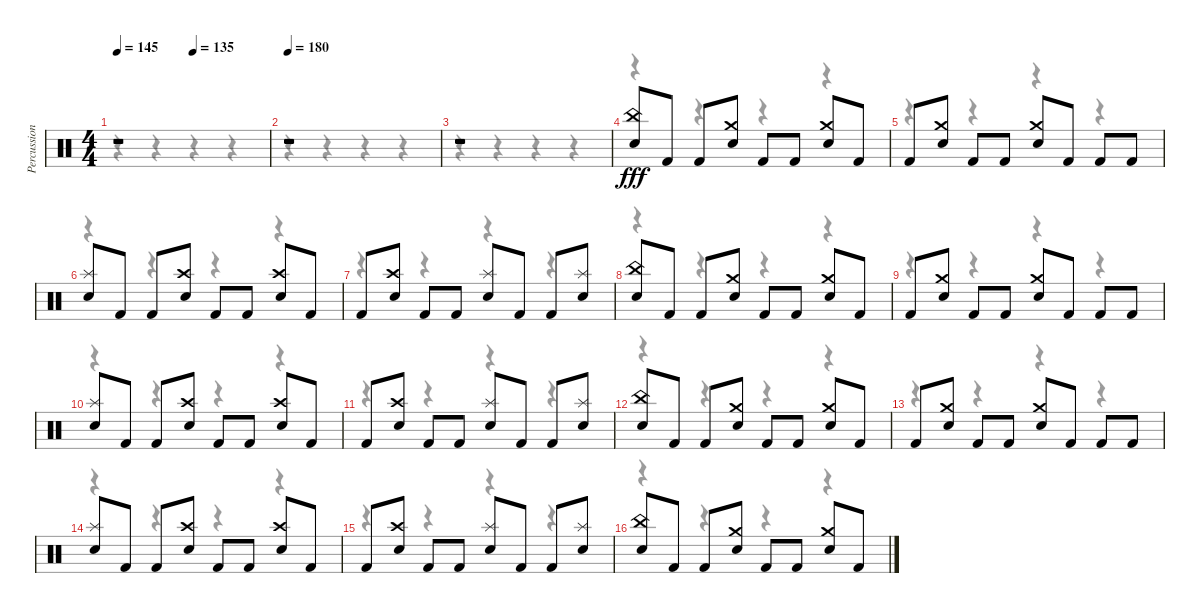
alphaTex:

\track ("Percussion" "Percussion") {instrument percussion}
\staff {score}
\articulation defaults
\voice
\ts (4 4)
\tempo 145
\tempo (135 0.5)
\clef neutral
\ks c
r.1{dy fff} |
\tempo 180
r.1 |
r.1 |
("Snare (hit) 2" "China (hit)").8 "Kick (hit) 2".8 "Kick (hit) 2".8 ("Snare (hit) 2" "Crash medium (hit)").8 "Kick (hit) 2".8 "Kick (hit) 2".8 ("Snare (hit) 2" "Crash medium (hit)").8 "Kick (hit) 2".8 |
"Kick (hit) 2".8 ("Snare (hit) 2" "Crash medium (hit)").8 "Kick (hit) 2".8 "Kick (hit) 2".8 ("Snare (hit) 2" "Crash medium (hit)").8 "Kick (hit) 2".8 "Kick (hit) 2".8 "Kick (hit) 2".8 |
("Snare (hit) 2" "Splash (hit)").8 "Kick (hit) 2".8 "Kick (hit) 2".8 ("Snare (hit) 2" "Crash high (hit)").8 "Kick (hit) 2".8 "Kick (hit) 2".8 ("Snare (hit) 2" "Crash high (hit)").8 "Kick (hit) 2".8 |
"Kick (hit) 2".8 ("Snare (hit) 2" "Crash high (hit)").8 "Kick (hit) 2".8 "Kick (hit) 2".8 ("Snare (hit) 2" "Splash (hit)").8 "Kick (hit) 2".8 "Kick (hit) 2".8 ("Snare (hit) 2" "Splash (hit)").8 |
("Snare (hit) 2" "China (hit)").8 "Kick (hit) 2".8 "Kick (hit) 2".8 ("Snare (hit) 2" "Crash medium (hit)").8 "Kick (hit) 2".8 "Kick (hit) 2".8 ("Snare (hit) 2" "Crash medium (hit)").8 "Kick (hit) 2".8 |
"Kick (hit) 2".8 ("Snare (hit) 2" "Crash medium (hit)").8 "Kick (hit) 2".8 "Kick (hit) 2".8 ("Snare (hit) 2" "Crash medium (hit)").8 "Kick (hit) 2".8 "Kick (hit) 2".8 "Kick (hit) 2".8 |
("Snare (hit) 2" "Splash (hit)").8 "Kick (hit) 2".8 "Kick (hit) 2".8 ("Snare (hit) 2" "Crash high (hit)").8 "Kick (hit) 2".8 "Kick (hit) 2".8 ("Snare (hit) 2" "Crash high (hit)").8 "Kick (hit) 2".8 |
"Kick (hit) 2".8 ("Snare (hit) 2" "Crash high (hit)").8 "Kick (hit) 2".8 "Kick (hit) 2".8 ("Snare (hit) 2" "Splash (hit)").8 "Kick (hit) 2".8 "Kick (hit) 2".8 ("Snare (hit) 2" "Splash (hit)").8 |
("Snare (hit) 2" "China (hit)").8 "Kick (hit) 2".8 "Kick (hit) 2".8 ("Snare (hit) 2" "Crash medium (hit)").8 "Kick (hit) 2".8 "Kick (hit) 2".8 ("Snare (hit) 2" "Crash medium (hit)").8 "Kick (hit) 2".8 |
"Kick (hit) 2".8 ("Snare (hit) 2" "Crash medium (hit)").8 "Kick (hit) 2".8 "Kick (hit) 2".8 ("Snare (hit) 2" "Crash medium (hit)").8 "Kick (hit) 2".8 "Kick (hit) 2".8 "Kick (hit) 2".8 |
("Snare (hit) 2" "Splash (hit)").8 "Kick (hit) 2".8 "Kick (hit) 2".8 ("Snare (hit) 2" "Crash high (hit)").8 "Kick (hit) 2".8 "Kick (hit) 2".8 ("Snare (hit) 2" "Crash high (hit)").8 "Kick (hit) 2".8 |
"Kick (hit) 2".8 ("Snare (hit) 2" "Crash high (hit)").8 "Kick (hit) 2".8 "Kick (hit) 2".8 ("Snare (hit) 2" "Splash (hit)").8 "Kick (hit) 2".8 "Kick (hit) 2".8 ("Snare (hit) 2" "Splash (hit)").8 |
("Snare (hit) 2" "China (hit)").8 "Kick (hit) 2".8 "Kick (hit) 2".8 ("Snare (hit) 2" "Crash medium (hit)").8 "Kick (hit) 2".8 "Kick (hit) 2".8 ("Snare (hit) 2" "Crash medium (hit)").8 "Kick (hit) 2".8
\voice
\clef neutral
\ottava regular
\simile none
\ks c
r.4{dy f} r.4 r.4 r.4 |
r.4 r.4 r.4 r.4 |
r.4 r.4 r.4 r.4 |
r.4 r.4 r.4 r.4 |
r.4 r.4 r.4 r.4 |
r.4 r.4 r.4 r.4 |
r.4 r.4 r.4 r.4 |
r.4 r.4 r.4 r.4 |
r.4 r.4 r.4 r.4 |
r.4 r.4 r.4 r.4 |
r.4 r.4 r.4 r.4 |
r.4 r.4 r.4 r.4 |
r.4 r.4 r.4 r.4 |
r.4 r.4 r.4 r.4 |
r.4 r.4 r.4 r.4 |
r.4 r.4 r.4 r.4
